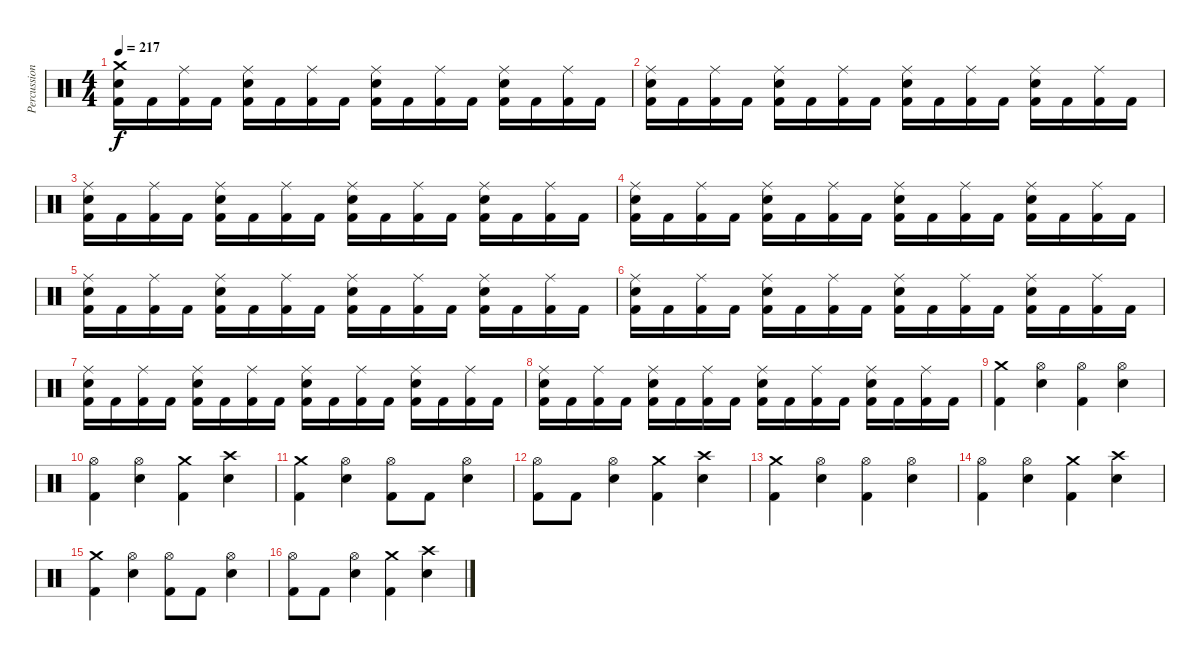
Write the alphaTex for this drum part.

\track ("Percussions" "Percussion") {instrument percussion}
\staff {score}
\articulation defaults
\ts (4 4)
\tempo 217
\clef neutral
\ks c
("Crash medium (hit)" "Electric Snare (hit)" "Kick (hit) 2").16{dy f} "Kick (hit) 2".16 ("Ride (middle)" "Kick (hit) 2").16 "Kick (hit) 2".16 ("Ride (middle)" "Electric Snare (hit)" "Kick (hit) 2").16 "Kick (hit) 2".16 ("Ride (middle)" "Kick (hit) 2").16 "Kick (hit) 2".16 ("Ride (middle)" "Electric Snare (hit)" "Kick (hit) 2").16 "Kick (hit) 2".16 ("Ride (middle)" "Kick (hit) 2").16 "Kick (hit) 2".16 ("Ride (middle)" "Electric Snare (hit)" "Kick (hit) 2").16 "Kick (hit) 2".16 ("Ride (middle)" "Kick (hit) 2").16 "Kick (hit) 2".16 |
("Ride (middle)" "Electric Snare (hit)" "Kick (hit) 2").16 "Kick (hit) 2".16 ("Ride (middle)" "Kick (hit) 2").16 "Kick (hit) 2".16 ("Ride (middle)" "Electric Snare (hit)" "Kick (hit) 2").16 "Kick (hit) 2".16 ("Ride (middle)" "Kick (hit) 2").16 "Kick (hit) 2".16 ("Ride (middle)" "Electric Snare (hit)" "Kick (hit) 2").16 "Kick (hit) 2".16 ("Ride (middle)" "Kick (hit) 2").16 "Kick (hit) 2".16 ("Ride (middle)" "Electric Snare (hit)" "Kick (hit) 2").16 "Kick (hit) 2".16 ("Ride (middle)" "Kick (hit) 2").16 "Kick (hit) 2".16 |
("Ride (middle)" "Electric Snare (hit)" "Kick (hit) 2").16 "Kick (hit) 2".16 ("Ride (middle)" "Kick (hit) 2").16 "Kick (hit) 2".16 ("Ride (middle)" "Electric Snare (hit)" "Kick (hit) 2").16 "Kick (hit) 2".16 ("Ride (middle)" "Kick (hit) 2").16 "Kick (hit) 2".16 ("Ride (middle)" "Electric Snare (hit)" "Kick (hit) 2").16 "Kick (hit) 2".16 ("Ride (middle)" "Kick (hit) 2").16 "Kick (hit) 2".16 ("Ride (middle)" "Electric Snare (hit)" "Kick (hit) 2").16 "Kick (hit) 2".16 ("Ride (middle)" "Kick (hit) 2").16 "Kick (hit) 2".16 |
("Ride (middle)" "Electric Snare (hit)" "Kick (hit) 2").16 "Kick (hit) 2".16 ("Ride (middle)" "Kick (hit) 2").16 "Kick (hit) 2".16 ("Ride (middle)" "Electric Snare (hit)" "Kick (hit) 2").16 "Kick (hit) 2".16 ("Ride (middle)" "Kick (hit) 2").16 "Kick (hit) 2".16 ("Ride (middle)" "Electric Snare (hit)" "Kick (hit) 2").16 "Kick (hit) 2".16 ("Ride (middle)" "Kick (hit) 2").16 "Kick (hit) 2".16 ("Ride (middle)" "Electric Snare (hit)" "Kick (hit) 2").16 "Kick (hit) 2".16 ("Ride (middle)" "Kick (hit) 2").16 "Kick (hit) 2".16 |
("Ride (middle)" "Electric Snare (hit)" "Kick (hit) 2").16 "Kick (hit) 2".16 ("Ride (middle)" "Kick (hit) 2").16 "Kick (hit) 2".16 ("Ride (middle)" "Electric Snare (hit)" "Kick (hit) 2").16 "Kick (hit) 2".16 ("Ride (middle)" "Kick (hit) 2").16 "Kick (hit) 2".16 ("Ride (middle)" "Electric Snare (hit)" "Kick (hit) 2").16 "Kick (hit) 2".16 ("Ride (middle)" "Kick (hit) 2").16 "Kick (hit) 2".16 ("Ride (middle)" "Electric Snare (hit)" "Kick (hit) 2").16 "Kick (hit) 2".16 ("Ride (middle)" "Kick (hit) 2").16 "Kick (hit) 2".16 |
("Ride (middle)" "Electric Snare (hit)" "Kick (hit) 2").16 "Kick (hit) 2".16 ("Ride (middle)" "Kick (hit) 2").16 "Kick (hit) 2".16 ("Ride (middle)" "Electric Snare (hit)" "Kick (hit) 2").16 "Kick (hit) 2".16 ("Ride (middle)" "Kick (hit) 2").16 "Kick (hit) 2".16 ("Ride (middle)" "Electric Snare (hit)" "Kick (hit) 2").16 "Kick (hit) 2".16 ("Ride (middle)" "Kick (hit) 2").16 "Kick (hit) 2".16 ("Ride (middle)" "Electric Snare (hit)" "Kick (hit) 2").16 "Kick (hit) 2".16 ("Ride (middle)" "Kick (hit) 2").16 "Kick (hit) 2".16 |
("Ride (middle)" "Electric Snare (hit)" "Kick (hit) 2").16 "Kick (hit) 2".16 ("Ride (middle)" "Kick (hit) 2").16 "Kick (hit) 2".16 ("Ride (middle)" "Electric Snare (hit)" "Kick (hit) 2").16 "Kick (hit) 2".16 ("Ride (middle)" "Kick (hit) 2").16 "Kick (hit) 2".16 ("Ride (middle)" "Electric Snare (hit)" "Kick (hit) 2").16 "Kick (hit) 2".16 ("Ride (middle)" "Kick (hit) 2").16 "Kick (hit) 2".16 ("Ride (middle)" "Electric Snare (hit)" "Kick (hit) 2").16 "Kick (hit) 2".16 ("Ride (middle)" "Kick (hit) 2").16 "Kick (hit) 2".16 |
("Ride (middle)" "Electric Snare (hit)" "Kick (hit) 2").16 "Kick (hit) 2".16 ("Ride (middle)" "Kick (hit) 2").16 "Kick (hit) 2".16 ("Ride (middle)" "Electric Snare (hit)" "Kick (hit) 2").16 "Kick (hit) 2".16 ("Ride (middle)" "Kick (hit) 2").16 "Kick (hit) 2".16 ("Ride (middle)" "Electric Snare (hit)" "Kick (hit) 2").16 "Kick (hit) 2".16 ("Ride (middle)" "Kick (hit) 2").16 "Kick (hit) 2".16 ("Ride (middle)" "Electric Snare (hit)" "Kick (hit) 2").16 "Kick (hit) 2".16 ("Ride (middle)" "Kick (hit) 2").16 "Kick (hit) 2".16 |
("Crash medium (hit)" "Kick (hit) 2").4 ("Hi-Hat (open)" "Electric Snare (hit)").4 ("Hi-Hat (open)" "Kick (hit) 2").4 ("Hi-Hat (open)" "Electric Snare (hit)").4 |
("Hi-Hat (open)" "Kick (hit) 2").4 ("Hi-Hat (open)" "Electric Snare (hit)").4 ("Crash medium (hit)" "Kick (hit) 2").4 ("Crash high (hit)" "Electric Snare (hit)").4 |
("Crash medium (hit)" "Kick (hit) 2").4 ("Hi-Hat (open)" "Electric Snare (hit)").4 ("Hi-Hat (open)" "Kick (hit) 2").8 "Kick (hit) 2".8 ("Hi-Hat (open)" "Electric Snare (hit)").4 |
("Hi-Hat (open)" "Kick (hit) 2").8 "Kick (hit) 2".8 ("Hi-Hat (open)" "Electric Snare (hit)").4 ("Crash medium (hit)" "Kick (hit) 2").4 ("Crash high (hit)" "Electric Snare (hit)").4 |
("Crash medium (hit)" "Kick (hit) 2").4 ("Hi-Hat (open)" "Electric Snare (hit)").4 ("Hi-Hat (open)" "Kick (hit) 2").4 ("Hi-Hat (open)" "Electric Snare (hit)").4 |
("Hi-Hat (open)" "Kick (hit) 2").4 ("Hi-Hat (open)" "Electric Snare (hit)").4 ("Crash medium (hit)" "Kick (hit) 2").4 ("Crash high (hit)" "Electric Snare (hit)").4 |
("Crash medium (hit)" "Kick (hit) 2").4 ("Hi-Hat (open)" "Electric Snare (hit)").4 ("Hi-Hat (open)" "Kick (hit) 2").8 "Kick (hit) 2".8 ("Hi-Hat (open)" "Electric Snare (hit)").4 |
("Hi-Hat (open)" "Kick (hit) 2").8 "Kick (hit) 2".8 ("Hi-Hat (open)" "Electric Snare (hit)").4 ("Crash medium (hit)" "Kick (hit) 2").4 ("Crash high (hit)" "Electric Snare (hit)").4
